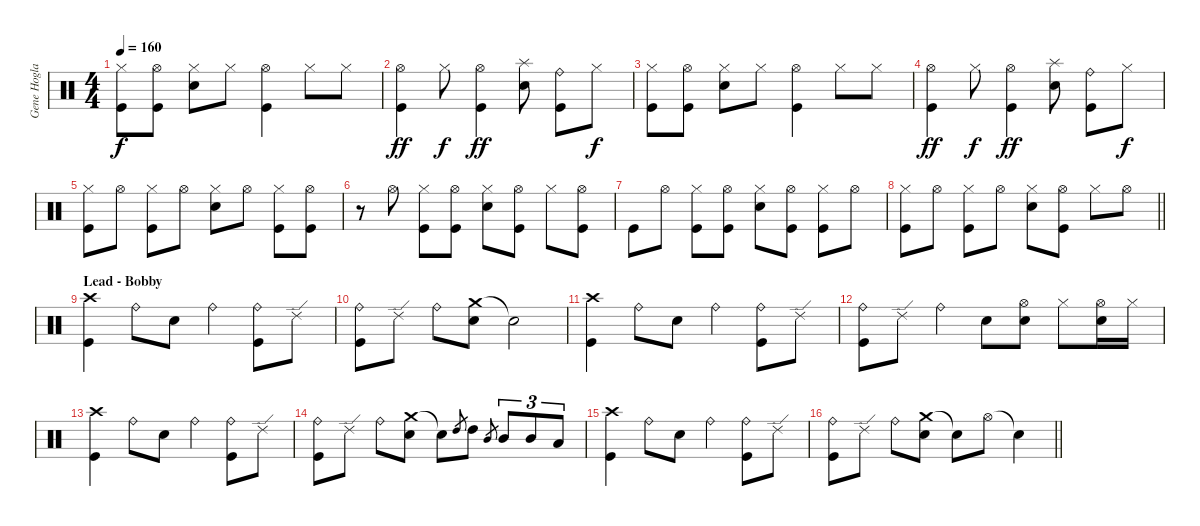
\track ("Gene Hoglan" "Gene Hogla") {instrument percussion}
\staff {score}
\articulation defaults
\ts (4 4)
\tempo 160
\clef neutral
\ks c
("Hi-Hat (closed)" "Kick (hit)").8{dy f} ("Hi-Hat (open)" "Kick (hit)").8 ("Hi-Hat (closed)" "Electric Snare (hit)").8 "Hi-Hat (closed)".8 ("Hi-Hat (open)" "Kick (hit)").4 "Hi-Hat (closed)".8 "Hi-Hat (closed)".8 |
("Hi-Hat (open)" "Kick (hit)").4{dy ff} "Hi-Hat (closed)".8{dy f} ("Hi-Hat (open)" "Kick (hit)").4{dy ff} ("Splash (hit)" "Electric Snare (hit)").8 ("Ride (bell)" "Kick (hit)").8 "Hi-Hat (closed)".8{dy f} |
("Hi-Hat (closed)" "Kick (hit)").8 ("Hi-Hat (open)" "Kick (hit)").8 ("Hi-Hat (closed)" "Electric Snare (hit)").8 "Hi-Hat (closed)".8 ("Hi-Hat (open)" "Kick (hit)").4 "Hi-Hat (closed)".8 "Hi-Hat (closed)".8 |
("Hi-Hat (open)" "Kick (hit)").4{dy ff} "Hi-Hat (closed)".8{dy f} ("Hi-Hat (open)" "Kick (hit)").4{dy ff} ("Splash (hit)" "Electric Snare (hit)").8 ("Ride (bell)" "Kick (hit)").8 "Hi-Hat (closed)".8{dy f} |
("Hi-Hat (closed)" "Kick (hit)").8 "Hi-Hat (open)".8 ("Hi-Hat (closed)" "Kick (hit)").8 "Hi-Hat (open)".8 ("Hi-Hat (closed)" "Electric Snare (hit)").8 "Hi-Hat (open)".8 ("Hi-Hat (closed)" "Kick (hit)").8 ("Hi-Hat (open)" "Kick (hit)").8 |
r.8 "Hi-Hat (open)".8 ("Hi-Hat (closed)" "Kick (hit)").8 ("Hi-Hat (open)" "Kick (hit)").8 ("Hi-Hat (closed)" "Electric Snare (hit)").8 ("Hi-Hat (open)" "Kick (hit)").8 "Hi-Hat (closed)".8 ("Hi-Hat (open)" "Kick (hit)").8 |
"Kick (hit)".8 "Hi-Hat (open)".8 ("Hi-Hat (closed)" "Kick (hit)").8 ("Hi-Hat (open)" "Kick (hit)").8 ("Hi-Hat (closed)" "Electric Snare (hit)").8 ("Hi-Hat (open)" "Kick (hit)").8 ("Hi-Hat (closed)" "Kick (hit)").8 "Hi-Hat (open)".8 |
\barLineRight lightlight
("Hi-Hat (closed)" "Kick (hit)").8 "Hi-Hat (open)".8 ("Hi-Hat (closed)" "Kick (hit)").8 "Hi-Hat (open)".8 ("Hi-Hat (closed)" "Electric Snare (hit)").8 ("Hi-Hat (open)" "Kick (hit)").8 "Hi-Hat (closed)".8 "Hi-Hat (open)".8 |
\section ("" "Lead - Bobby")
("Crash high (hit)" "Kick (hit)").4 "Ride (bell)".8 "Electric Snare (hit)".8 "Ride (bell)".4 ("Ride (bell)" "Kick (hit)").8 "Ride (edge) 2".8 |
("Ride (bell)" "Kick (hit)").8 "Ride (edge) 2".8 "Ride (bell)".8 ("Crash medium (hit)" "Electric Snare (hit)").8 "Snare (hit)"{t}.2 |
("Crash high (hit)" "Kick (hit)").4 "Ride (bell)".8 "Electric Snare (hit)".8 "Ride (bell)".4 ("Ride (bell)" "Kick (hit)").8 "Ride (edge) 2".8 |
("Ride (bell)" "Kick (hit)").8 "Ride (edge) 2".8 "Ride (bell)".4 "Electric Snare (hit)".8 ("Hi-Hat (open)" "Electric Snare (hit)").8 "Hi-Hat (closed)".8 ("Hi-Hat (open)" "Electric Snare (hit)").16 "Hi-Hat (closed)".16 |
("Crash high (hit)" "Kick (hit)").4 "Ride (bell)".8 "Electric Snare (hit)".8 "Ride (bell)".4 ("Ride (bell)" "Kick (hit)").8 "Ride (edge) 2".8 |
("Ride (bell)" "Kick (hit)").8 "Ride (edge) 2".8 "Ride (bell)".8 ("Crash medium (hit)" "Electric Snare (hit)").8 "Snare (hit)"{t}.8 "High Tom (hit)".8{gr} "High Tom (hit)".8 "Mid Tom (hit)".8{gr} "Mid Tom (hit)".8{tu (3 2)} "Mid Tom (hit)".8{tu (3 2)} "Low Tom (hit)".8{tu (3 2)} |
("Crash high (hit)" "Kick (hit)").4 "Ride (bell)".8 "Electric Snare (hit)".8 "Ride (bell)".4 ("Ride (bell)" "Kick (hit)").8 "Ride (edge) 2".8 |
\barLineRight lightlight
("Ride (bell)" "Kick (hit)").8 "Ride (edge) 2".8 "Ride (bell)".8 ("Crash medium (hit)" "Electric Snare (hit)").8 "Snare (hit)"{t}.8 "Hi-Hat (open)".8 "Snare (hit)"{t}.4
